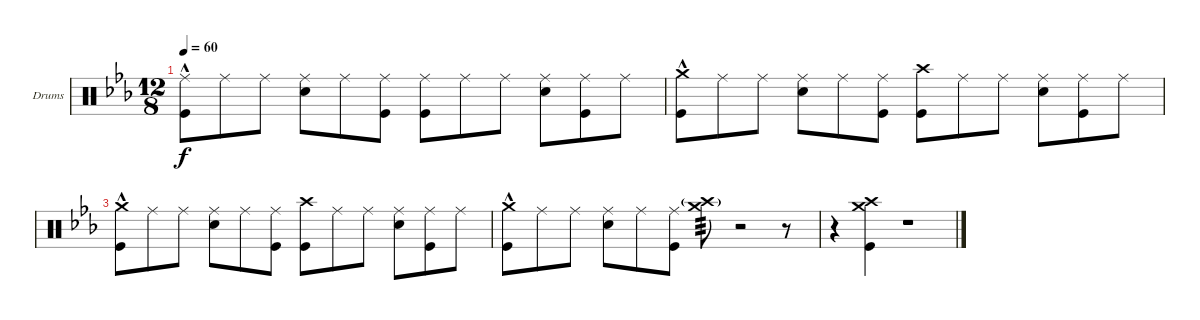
\bracketExtendMode nobrackets
\firstSystemTrackNameOrientation horizontal
\otherSystemsTrackNameOrientation horizontal
\defaultBarNumberDisplay FirstOfSystem
\track ("Drumkit" "Drums") {instrument percussion}
\staff {score}
\articulation defaults
\ts (12 8)
\tempo 60
\clef neutral
\scale
0.333333
\ks cminor
("Ride (middle)" "Kick (hit)"{hac}).8{dy f} "Ride (middle)".8 "Ride (middle)".8 ("Ride (middle)" "Snare (hit) 2").8 "Ride (middle)".8 ("Ride (middle)" "Kick (hit)").8 ("Ride (middle)" "Kick (hit)").8 "Ride (middle)".8 "Ride (middle)".8 ("Ride (middle)" "Snare (hit) 2").8 ("Ride (middle)" "Kick (hit)").8 "Ride (middle)".8 |
\scale
0.333333 ("Crash medium (hit)" "Kick (hit)"{hac}).8 "Ride (middle)".8 "Ride (middle)".8 ("Ride (middle)" "Snare (hit) 2").8 "Ride (middle)".8 ("Ride (middle)" "Kick (hit)").8 ("Crash high (hit)" "Kick (hit)").8 "Ride (middle)".8 "Ride (middle)".8 ("Ride (middle)" "Snare (hit) 2").8 ("Ride (middle)" "Kick (hit)").8 "Ride (middle)".8 |
\scale
0.333333 ("Crash medium (hit)" "Kick (hit)"{hac}).8 "Ride (middle)".8 "Ride (middle)".8 ("Ride (middle)" "Snare (hit) 2").8 "Ride (middle)".8 ("Ride (middle)" "Kick (hit)").8 ("Crash high (hit)" "Kick (hit)").8 "Ride (middle)".8 "Ride (middle)".8 ("Ride (middle)" "Snare (hit) 2").8 ("Ride (middle)" "Kick (hit)").8 "Ride (middle)".8 |
("Crash medium (hit)" "Kick (hit)"{hac}).8 "Ride (middle)".8 "Ride (middle)".8 ("Ride (middle)" "Snare (hit) 2").8 "Ride (middle)".8 ("Ride (middle)" "Kick (hit)").8 ("Crash high (hit)"{g} "Crash medium (hit)").8{tp 3} r.2 r.8 |
r.4 ("Crash high (hit)" "Crash medium (hit)" "Kick (hit)").4 r.1
